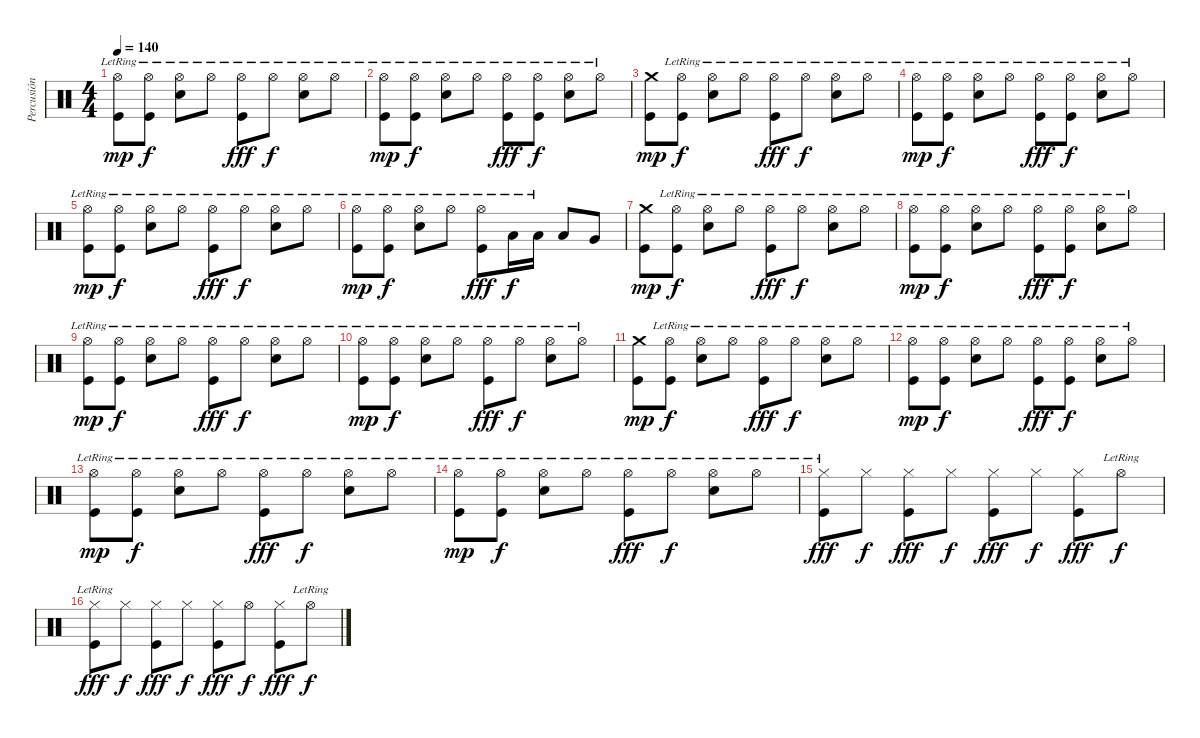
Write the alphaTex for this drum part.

\track ("Percusión" "Percusión") {instrument percussion}
\staff {score}
\articulation defaults
\ts (4 4)
\tempo 140
\clef neutral
\ks c
("Kick (hit)" "Hi-Hat (open)"{lr}).8{dy mp} ("Kick (hit)" "Hi-Hat (open)"{lr}).8{dy f} ("Snare (hit) 2" "Hi-Hat (open)"{lr}).8 "Hi-Hat (open)"{lr}.8 ("Kick (hit)" "Hi-Hat (open)"{lr}).8{dy fff} "Hi-Hat (open)"{lr}.8{dy f} ("Snare (hit) 2" "Hi-Hat (open)"{lr}).8 "Hi-Hat (open)"{lr}.8 |
("Kick (hit)" "Hi-Hat (open)"{lr}).8{dy mp} ("Kick (hit)" "Hi-Hat (open)"{lr}).8{dy f} ("Snare (hit) 2" "Hi-Hat (open)"{lr}).8 "Hi-Hat (open)"{lr}.8 ("Kick (hit)" "Hi-Hat (open)"{lr}).8{dy fff} ("Kick (hit)" "Hi-Hat (open)"{lr}).8{dy f} ("Snare (hit) 2" "Hi-Hat (open)"{lr}).8 "Hi-Hat (open)"{lr}.8 |
("Kick (hit)" "Crash medium (hit)").8{dy mp} ("Kick (hit)" "Hi-Hat (open)"{lr}).8{dy f} ("Snare (hit) 2" "Hi-Hat (open)"{lr}).8 "Hi-Hat (open)"{lr}.8 ("Kick (hit)" "Hi-Hat (open)"{lr}).8{dy fff} "Hi-Hat (open)"{lr}.8{dy f} ("Snare (hit) 2" "Hi-Hat (open)"{lr}).8 "Hi-Hat (open)"{lr}.8 |
("Kick (hit)" "Hi-Hat (open)"{lr}).8{dy mp} ("Kick (hit)" "Hi-Hat (open)"{lr}).8{dy f} ("Snare (hit) 2" "Hi-Hat (open)"{lr}).8 "Hi-Hat (open)"{lr}.8 ("Kick (hit)" "Hi-Hat (open)"{lr}).8{dy fff} ("Kick (hit)" "Hi-Hat (open)"{lr}).8{dy f} ("Snare (hit) 2" "Hi-Hat (open)"{lr}).8 "Hi-Hat (open)"{lr}.8 |
("Kick (hit)" "Hi-Hat (open)"{lr}).8{dy mp} ("Kick (hit)" "Hi-Hat (open)"{lr}).8{dy f} ("Snare (hit) 2" "Hi-Hat (open)"{lr}).8 "Hi-Hat (open)"{lr}.8 ("Kick (hit)" "Hi-Hat (open)"{lr}).8{dy fff} "Hi-Hat (open)"{lr}.8{dy f} ("Snare (hit) 2" "Hi-Hat (open)"{lr}).8 "Hi-Hat (open)"{lr}.8 |
("Kick (hit)" "Hi-Hat (open)"{lr}).8{dy mp} ("Kick (hit)" "Hi-Hat (open)"{lr}).8{dy f} ("Snare (hit) 2" "Hi-Hat (open)"{lr}).8 "Hi-Hat (open)"{lr}.8 ("Kick (hit)" "Hi-Hat (open)"{lr}).8{dy fff} "Low Tom (hit)"{lr}.16{dy f} "Low Tom (hit)"{lr}.16 "Low Tom (hit)".8 "Very Low Tom (hit)".8 |
("Kick (hit)" "Crash medium (hit)").8{dy mp} ("Kick (hit)" "Hi-Hat (open)"{lr}).8{dy f} ("Snare (hit) 2" "Hi-Hat (open)"{lr}).8 "Hi-Hat (open)"{lr}.8 ("Kick (hit)" "Hi-Hat (open)"{lr}).8{dy fff} "Hi-Hat (open)"{lr}.8{dy f} ("Snare (hit) 2" "Hi-Hat (open)"{lr}).8 "Hi-Hat (open)"{lr}.8 |
("Kick (hit)" "Hi-Hat (open)"{lr}).8{dy mp} ("Kick (hit)" "Hi-Hat (open)"{lr}).8{dy f} ("Snare (hit) 2" "Hi-Hat (open)"{lr}).8 "Hi-Hat (open)"{lr}.8 ("Kick (hit)" "Hi-Hat (open)"{lr}).8{dy fff} ("Kick (hit)" "Hi-Hat (open)"{lr}).8{dy f} ("Snare (hit) 2" "Hi-Hat (open)"{lr}).8 "Hi-Hat (open)"{lr}.8 |
("Kick (hit)" "Hi-Hat (open)"{lr}).8{dy mp} ("Kick (hit)" "Hi-Hat (open)"{lr}).8{dy f} ("Snare (hit) 2" "Hi-Hat (open)"{lr}).8 "Hi-Hat (open)"{lr}.8 ("Kick (hit)" "Hi-Hat (open)"{lr}).8{dy fff} "Hi-Hat (open)"{lr}.8{dy f} ("Snare (hit) 2" "Hi-Hat (open)"{lr}).8 "Hi-Hat (open)"{lr}.8 |
("Kick (hit)" "Hi-Hat (open)"{lr}).8{dy mp} ("Kick (hit)" "Hi-Hat (open)"{lr}).8{dy f} ("Snare (hit) 2" "Hi-Hat (open)"{lr}).8 "Hi-Hat (open)"{lr}.8 ("Kick (hit)" "Hi-Hat (open)"{lr}).8{dy fff} "Hi-Hat (open)"{lr}.8{dy f} ("Snare (hit) 2" "Hi-Hat (open)"{lr}).8 "Hi-Hat (open)"{lr}.8 |
("Kick (hit)" "Crash medium (hit)").8{dy mp} ("Kick (hit)" "Hi-Hat (open)"{lr}).8{dy f} ("Snare (hit) 2" "Hi-Hat (open)"{lr}).8 "Hi-Hat (open)"{lr}.8 ("Kick (hit)" "Hi-Hat (open)"{lr}).8{dy fff} "Hi-Hat (open)"{lr}.8{dy f} ("Snare (hit) 2" "Hi-Hat (open)"{lr}).8 "Hi-Hat (open)"{lr}.8 |
("Kick (hit)" "Hi-Hat (open)"{lr}).8{dy mp} ("Kick (hit)" "Hi-Hat (open)"{lr}).8{dy f} ("Snare (hit) 2" "Hi-Hat (open)"{lr}).8 "Hi-Hat (open)"{lr}.8 ("Kick (hit)" "Hi-Hat (open)"{lr}).8{dy fff} ("Kick (hit)" "Hi-Hat (open)"{lr}).8{dy f} ("Snare (hit) 2" "Hi-Hat (open)"{lr}).8 "Hi-Hat (open)"{lr}.8 |
("Kick (hit)" "Hi-Hat (open)"{lr}).8{dy mp} ("Kick (hit)" "Hi-Hat (open)"{lr}).8{dy f} ("Snare (hit) 2" "Hi-Hat (open)"{lr}).8 "Hi-Hat (open)"{lr}.8 ("Kick (hit)" "Hi-Hat (open)"{lr}).8{dy fff} "Hi-Hat (open)"{lr}.8{dy f} ("Snare (hit) 2" "Hi-Hat (open)"{lr}).8 "Hi-Hat (open)"{lr}.8 |
("Kick (hit)" "Hi-Hat (open)"{lr}).8{dy mp} ("Kick (hit)" "Hi-Hat (open)"{lr}).8{dy f} ("Snare (hit) 2" "Hi-Hat (open)"{lr}).8 "Hi-Hat (open)"{lr}.8 ("Kick (hit)" "Hi-Hat (open)"{lr}).8{dy fff} "Hi-Hat (open)"{lr}.8{dy f} ("Snare (hit) 2" "Hi-Hat (open)"{lr}).8 "Hi-Hat (open)"{lr}.8 |
("Kick (hit)" "Hi-Hat (closed)"{lr}).8{dy fff} "Hi-Hat (closed)".8{dy f} ("Kick (hit)" "Hi-Hat (closed)").8{dy fff} "Hi-Hat (closed)".8{dy f} ("Kick (hit)" "Hi-Hat (closed)").8{dy fff} "Hi-Hat (closed)".8{dy f} ("Kick (hit)" "Hi-Hat (closed)").8{dy fff} "Hi-Hat (open)"{lr}.8{dy f} |
("Kick (hit)" "Hi-Hat (closed)"{lr}).8{dy fff} "Hi-Hat (closed)".8{dy f} ("Kick (hit)" "Hi-Hat (closed)").8{dy fff} "Hi-Hat (closed)".8{dy f} ("Kick (hit)" "Hi-Hat (closed)").8{dy fff} "Hi-Hat (open)".8{dy f} ("Kick (hit)" "Hi-Hat (closed)").8{dy fff} "Hi-Hat (open)"{lr}.8{dy f}
